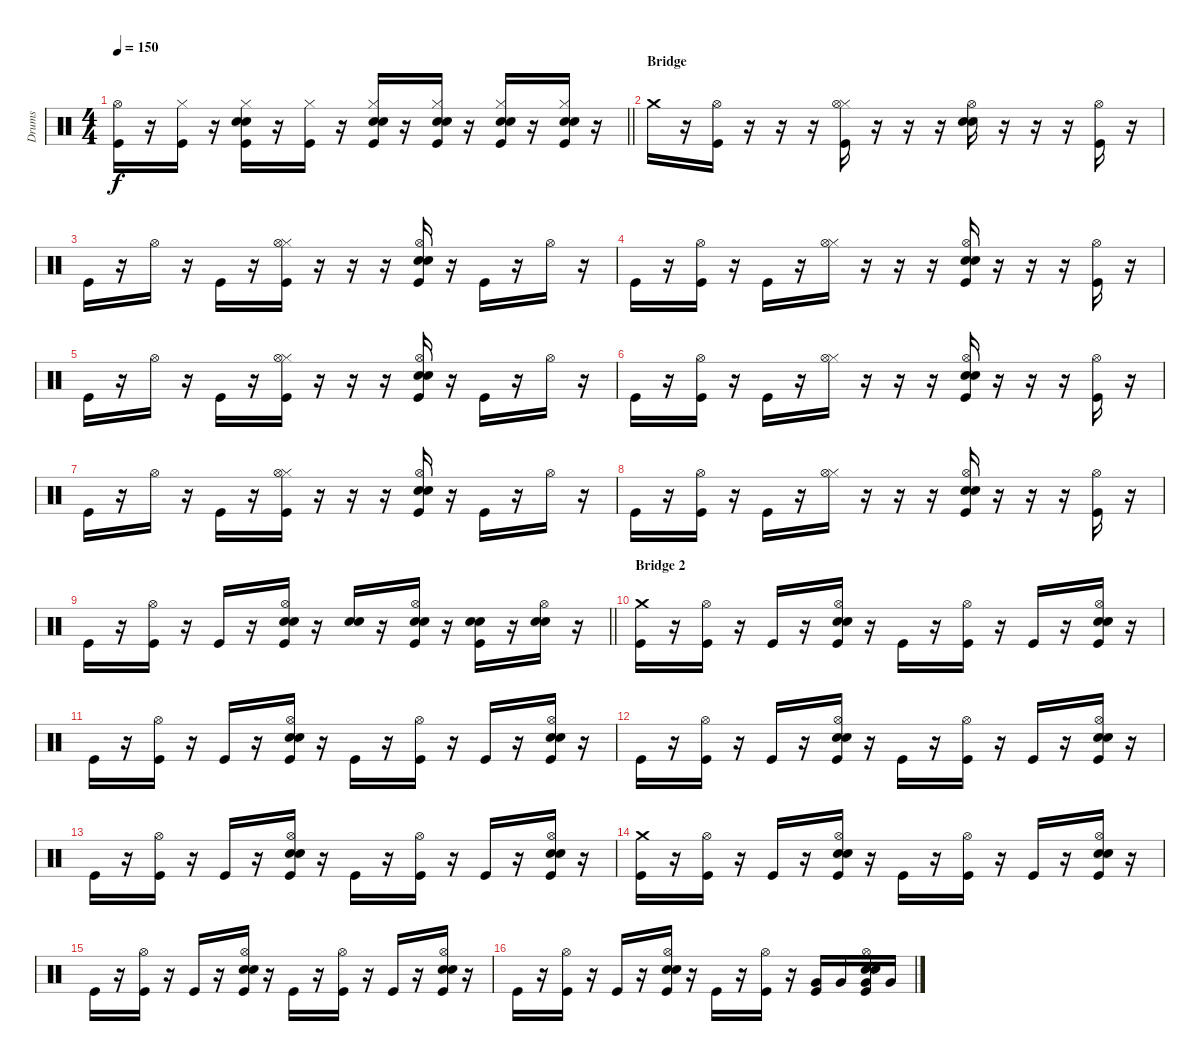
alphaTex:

\track ("Drums" "Drums") {instrument percussion}
\staff {score}
\articulation defaults
\ts (4 4)
\tempo 150
\clef neutral
\barLineRight lightlight
\ks c
("Kick (hit)" "Hi-Hat (open)").16{dy f} r.16 ("Kick (hit)" "Hi-Hat (closed)").16 r.16 ("Snare (hit) 2" "Electric Snare (hit)" "Kick (hit)" "Hi-Hat (closed)").16 r.16 ("Kick (hit)" "Hi-Hat (closed)").16 r.16 ("Electric Snare (hit)" "Snare (hit) 2" "Kick (hit)" "Hi-Hat (closed)").16 r.16 ("Electric Snare (hit)" "Snare (hit) 2" "Kick (hit)" "Hi-Hat (closed)").16 r.16 ("Snare (hit) 2" "Electric Snare (hit)" "Kick (hit)" "Hi-Hat (closed)").16 r.16 ("Electric Snare (hit)" "Snare (hit) 2" "Kick (hit)" "Hi-Hat (closed)").16 r.16 |
\section ("" "Bridge")
"Crash medium (hit)".16 r.16 ("Kick (hit)" "Hi-Hat (open)").16 r.16 r.16 r.16 ("Hi-Hat (closed)" "Kick (hit)" "Hi-Hat (open)").16 r.16 r.16 r.16 ("Electric Snare (hit)" "Snare (hit) 2" "Hi-Hat (open)").16 r.16 r.16 r.16 ("Kick (hit)" "Hi-Hat (open)").16 r.16 |
"Kick (hit)".16 r.16 "Hi-Hat (open)".16 r.16 "Kick (hit)".16 r.16 ("Hi-Hat (closed)" "Kick (hit)" "Hi-Hat (open)").16 r.16 r.16 r.16 ("Electric Snare (hit)" "Snare (hit) 2" "Kick (hit)" "Hi-Hat (open)").16 r.16 "Kick (hit)".16 r.16 "Hi-Hat (open)".16 r.16 |
"Kick (hit)".16 r.16 ("Kick (hit)" "Hi-Hat (open)").16 r.16 "Kick (hit)".16 r.16 ("Hi-Hat (closed)" "Hi-Hat (open)").16 r.16 r.16 r.16 ("Electric Snare (hit)" "Snare (hit) 2" "Kick (hit)" "Hi-Hat (open)").16 r.16 r.16 r.16 ("Kick (hit)" "Hi-Hat (open)").16 r.16 |
"Kick (hit)".16 r.16 "Hi-Hat (open)".16 r.16 "Kick (hit)".16 r.16 ("Hi-Hat (closed)" "Kick (hit)" "Hi-Hat (open)").16 r.16 r.16 r.16 ("Electric Snare (hit)" "Snare (hit) 2" "Kick (hit)" "Hi-Hat (open)").16 r.16 "Kick (hit)".16 r.16 "Hi-Hat (open)".16 r.16 |
"Kick (hit)".16 r.16 ("Kick (hit)" "Hi-Hat (open)").16 r.16 "Kick (hit)".16 r.16 ("Hi-Hat (closed)" "Hi-Hat (open)").16 r.16 r.16 r.16 ("Electric Snare (hit)" "Snare (hit) 2" "Kick (hit)" "Hi-Hat (open)").16 r.16 r.16 r.16 ("Kick (hit)" "Hi-Hat (open)").16 r.16 |
"Kick (hit)".16 r.16 "Hi-Hat (open)".16 r.16 "Kick (hit)".16 r.16 ("Hi-Hat (closed)" "Kick (hit)" "Hi-Hat (open)").16 r.16 r.16 r.16 ("Electric Snare (hit)" "Snare (hit) 2" "Kick (hit)" "Hi-Hat (open)").16 r.16 "Kick (hit)".16 r.16 "Hi-Hat (open)".16 r.16 |
"Kick (hit)".16 r.16 ("Kick (hit)" "Hi-Hat (open)").16 r.16 "Kick (hit)".16 r.16 ("Hi-Hat (closed)" "Hi-Hat (open)").16 r.16 r.16 r.16 ("Electric Snare (hit)" "Snare (hit) 2" "Kick (hit)" "Hi-Hat (open)").16 r.16 r.16 r.16 ("Kick (hit)" "Hi-Hat (open)").16 r.16 |
\barLineRight lightlight "Kick (hit)".16
r.16 ("Kick (hit)" "Hi-Hat (open)").16 r.16 "Kick (hit)".16 r.16 ("Electric Snare (hit)" "Snare (hit) 2" "Kick (hit)" "Hi-Hat (open)").16 r.16 ("Electric Snare (hit)" "Snare (hit) 2").16 r.16 ("Electric Snare (hit)" "Snare (hit) 2" "Kick (hit)" "Hi-Hat (open)").16 r.16 ("Electric Snare (hit)" "Snare (hit) 2" "Kick (hit)").16 r.16 ("Electric Snare (hit)" "Snare (hit) 2" "Hi-Hat (open)").16 r.16 |
\section ("" "Bridge 2")
("Kick (hit)" "Crash medium (hit)").16 r.16 ("Kick (hit)" "Hi-Hat (open)").16 r.16 "Kick (hit)".16 r.16 ("Snare (hit) 2" "Electric Snare (hit)" "Kick (hit)" "Hi-Hat (open)").16 r.16 "Kick (hit)".16 r.16 ("Kick (hit)" "Hi-Hat (open)").16 r.16 "Kick (hit)".16 r.16 ("Snare (hit) 2" "Electric Snare (hit)" "Kick (hit)" "Hi-Hat (open)").16 r.16 |
"Kick (hit)".16 r.16 ("Kick (hit)" "Hi-Hat (open)").16 r.16 "Kick (hit)".16 r.16 ("Snare (hit) 2" "Electric Snare (hit)" "Kick (hit)" "Hi-Hat (open)").16 r.16 "Kick (hit)".16 r.16 ("Kick (hit)" "Hi-Hat (open)").16 r.16 "Kick (hit)".16 r.16 ("Snare (hit) 2" "Electric Snare (hit)" "Kick (hit)" "Hi-Hat (open)").16 r.16 |
"Kick (hit)".16 r.16 ("Kick (hit)" "Hi-Hat (open)").16 r.16 "Kick (hit)".16 r.16 ("Snare (hit) 2" "Electric Snare (hit)" "Kick (hit)" "Hi-Hat (open)").16 r.16 "Kick (hit)".16 r.16 ("Kick (hit)" "Hi-Hat (open)").16 r.16 "Kick (hit)".16 r.16 ("Snare (hit) 2" "Electric Snare (hit)" "Kick (hit)" "Hi-Hat (open)").16 r.16 |
"Kick (hit)".16 r.16 ("Kick (hit)" "Hi-Hat (open)").16 r.16 "Kick (hit)".16 r.16 ("Snare (hit) 2" "Electric Snare (hit)" "Kick (hit)" "Hi-Hat (open)").16 r.16 "Kick (hit)".16 r.16 ("Kick (hit)" "Hi-Hat (open)").16 r.16 "Kick (hit)".16 r.16 ("Snare (hit) 2" "Electric Snare (hit)" "Kick (hit)" "Hi-Hat (open)").16 r.16 |
("Kick (hit)" "Crash medium (hit)").16 r.16 ("Kick (hit)" "Hi-Hat (open)").16 r.16 "Kick (hit)".16 r.16 ("Snare (hit) 2" "Electric Snare (hit)" "Kick (hit)" "Hi-Hat (open)").16 r.16 "Kick (hit)".16 r.16 ("Kick (hit)" "Hi-Hat (open)").16 r.16 "Kick (hit)".16 r.16 ("Snare (hit) 2" "Electric Snare (hit)" "Kick (hit)" "Hi-Hat (open)").16 r.16 |
"Kick (hit)".16 r.16 ("Kick (hit)" "Hi-Hat (open)").16 r.16 "Kick (hit)".16 r.16 ("Snare (hit) 2" "Electric Snare (hit)" "Kick (hit)" "Hi-Hat (open)").16 r.16 "Kick (hit)".16 r.16 ("Kick (hit)" "Hi-Hat (open)").16 r.16 "Kick (hit)".16 r.16 ("Snare (hit) 2" "Electric Snare (hit)" "Kick (hit)" "Hi-Hat (open)").16 r.16 |
"Kick (hit)".16 r.16 ("Kick (hit)" "Hi-Hat (open)").16 r.16 "Kick (hit)".16 r.16 ("Snare (hit) 2" "Electric Snare (hit)" "Kick (hit)" "Hi-Hat (open)").16 r.16 "Kick (hit)".16 r.16 ("Kick (hit)" "Hi-Hat (open)").16 r.16 ("Very Low Tom (hit)" "Kick (hit)").16 "Very Low Tom (hit)".16 ("Very Low Tom (hit)" "Snare (hit) 2" "Electric Snare (hit)" "Kick (hit)" "Hi-Hat (open)").16 "Very Low Tom (hit)".16
